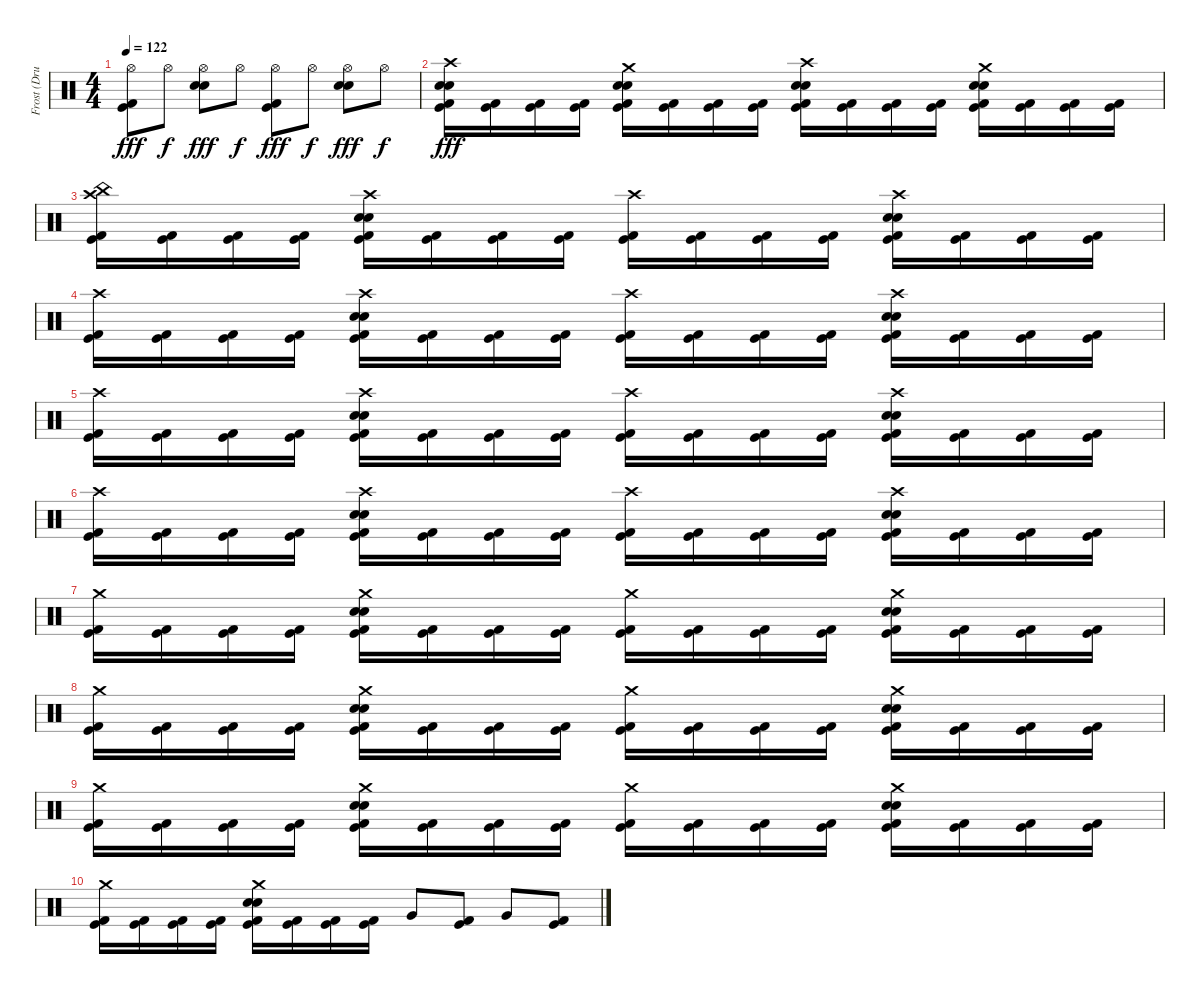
\track ("Frost (Drums)" "Frost (Dru") {instrument percussion}
\staff {score}
\articulation defaults
\ts (4 4)
\tempo 122
\clef neutral
\ks c
("Hi-Hat (open)" "Kick (hit)" "Kick (hit) 2").8{dy fff} "Hi-Hat (open)".8{dy f} ("Hi-Hat (open)" "Snare (hit) 2" "Electric Snare (hit)").8{dy fff} "Hi-Hat (open)".8{dy f} ("Hi-Hat (open)" "Kick (hit)" "Kick (hit) 2").8{dy fff} "Hi-Hat (open)".8{dy f} ("Hi-Hat (open)" "Snare (hit) 2" "Electric Snare (hit)").8{dy fff} "Hi-Hat (open)".8{dy f} |
("Crash high (hit)" "Snare (hit) 2" "Electric Snare (hit)" "Kick (hit)" "Kick (hit) 2").16{dy fff} ("Kick (hit)" "Kick (hit) 2").16 ("Kick (hit)" "Kick (hit) 2").16 ("Kick (hit)" "Kick (hit) 2").16 ("Crash medium (hit)" "Snare (hit) 2" "Electric Snare (hit)" "Kick (hit)" "Kick (hit) 2").16 ("Kick (hit)" "Kick (hit) 2").16 ("Kick (hit)" "Kick (hit) 2").16 ("Kick (hit)" "Kick (hit) 2").16 ("Crash high (hit)" "Snare (hit) 2" "Electric Snare (hit)" "Kick (hit)" "Kick (hit) 2").16 ("Kick (hit)" "Kick (hit) 2").16 ("Kick (hit)" "Kick (hit) 2").16 ("Kick (hit)" "Kick (hit) 2").16 ("Crash medium (hit)" "Snare (hit) 2" "Electric Snare (hit)" "Kick (hit)" "Kick (hit) 2").16 ("Kick (hit)" "Kick (hit) 2").16 ("Kick (hit)" "Kick (hit) 2").16 ("Kick (hit)" "Kick (hit) 2").16 |
("Crash high (hit)" "China (hit)" "Kick (hit)" "Kick (hit) 2").16 ("Kick (hit)" "Kick (hit) 2").16 ("Kick (hit)" "Kick (hit) 2").16 ("Kick (hit)" "Kick (hit) 2").16 ("Crash high (hit)" "Snare (hit) 2" "Electric Snare (hit)" "Kick (hit)" "Kick (hit) 2").16 ("Kick (hit)" "Kick (hit) 2").16 ("Kick (hit)" "Kick (hit) 2").16 ("Kick (hit)" "Kick (hit) 2").16 ("Crash high (hit)" "Kick (hit)" "Kick (hit) 2").16 ("Kick (hit)" "Kick (hit) 2").16 ("Kick (hit)" "Kick (hit) 2").16 ("Kick (hit)" "Kick (hit) 2").16 ("Crash high (hit)" "Snare (hit) 2" "Electric Snare (hit)" "Kick (hit)" "Kick (hit) 2").16 ("Kick (hit)" "Kick (hit) 2").16 ("Kick (hit)" "Kick (hit) 2").16 ("Kick (hit)" "Kick (hit) 2").16 |
("Crash high (hit)" "Kick (hit)" "Kick (hit) 2").16 ("Kick (hit)" "Kick (hit) 2").16 ("Kick (hit)" "Kick (hit) 2").16 ("Kick (hit)" "Kick (hit) 2").16 ("Crash high (hit)" "Snare (hit) 2" "Electric Snare (hit)" "Kick (hit)" "Kick (hit) 2").16 ("Kick (hit)" "Kick (hit) 2").16 ("Kick (hit)" "Kick (hit) 2").16 ("Kick (hit)" "Kick (hit) 2").16 ("Crash high (hit)" "Kick (hit)" "Kick (hit) 2").16 ("Kick (hit)" "Kick (hit) 2").16 ("Kick (hit)" "Kick (hit) 2").16 ("Kick (hit)" "Kick (hit) 2").16 ("Crash high (hit)" "Snare (hit) 2" "Electric Snare (hit)" "Kick (hit)" "Kick (hit) 2").16 ("Kick (hit)" "Kick (hit) 2").16 ("Kick (hit)" "Kick (hit) 2").16 ("Kick (hit)" "Kick (hit) 2").16 |
("Crash high (hit)" "Kick (hit)" "Kick (hit) 2").16 ("Kick (hit)" "Kick (hit) 2").16 ("Kick (hit)" "Kick (hit) 2").16 ("Kick (hit)" "Kick (hit) 2").16 ("Crash high (hit)" "Snare (hit) 2" "Electric Snare (hit)" "Kick (hit)" "Kick (hit) 2").16 ("Kick (hit)" "Kick (hit) 2").16 ("Kick (hit)" "Kick (hit) 2").16 ("Kick (hit)" "Kick (hit) 2").16 ("Crash high (hit)" "Kick (hit)" "Kick (hit) 2").16 ("Kick (hit)" "Kick (hit) 2").16 ("Kick (hit)" "Kick (hit) 2").16 ("Kick (hit)" "Kick (hit) 2").16 ("Crash high (hit)" "Snare (hit) 2" "Electric Snare (hit)" "Kick (hit)" "Kick (hit) 2").16 ("Kick (hit)" "Kick (hit) 2").16 ("Kick (hit)" "Kick (hit) 2").16 ("Kick (hit)" "Kick (hit) 2").16 |
("Crash high (hit)" "Kick (hit)" "Kick (hit) 2").16 ("Kick (hit)" "Kick (hit) 2").16 ("Kick (hit)" "Kick (hit) 2").16 ("Kick (hit)" "Kick (hit) 2").16 ("Crash high (hit)" "Snare (hit) 2" "Electric Snare (hit)" "Kick (hit)" "Kick (hit) 2").16 ("Kick (hit)" "Kick (hit) 2").16 ("Kick (hit)" "Kick (hit) 2").16 ("Kick (hit)" "Kick (hit) 2").16 ("Crash high (hit)" "Kick (hit)" "Kick (hit) 2").16 ("Kick (hit)" "Kick (hit) 2").16 ("Kick (hit)" "Kick (hit) 2").16 ("Kick (hit)" "Kick (hit) 2").16 ("Crash high (hit)" "Snare (hit) 2" "Electric Snare (hit)" "Kick (hit)" "Kick (hit) 2").16 ("Kick (hit)" "Kick (hit) 2").16 ("Kick (hit)" "Kick (hit) 2").16 ("Kick (hit)" "Kick (hit) 2").16 |
("Crash medium (hit)" "Kick (hit)" "Kick (hit) 2").16 ("Kick (hit)" "Kick (hit) 2").16 ("Kick (hit)" "Kick (hit) 2").16 ("Kick (hit)" "Kick (hit) 2").16 ("Crash medium (hit)" "Snare (hit) 2" "Electric Snare (hit)" "Kick (hit)" "Kick (hit) 2").16 ("Kick (hit)" "Kick (hit) 2").16 ("Kick (hit)" "Kick (hit) 2").16 ("Kick (hit)" "Kick (hit) 2").16 ("Crash medium (hit)" "Kick (hit)" "Kick (hit) 2").16 ("Kick (hit)" "Kick (hit) 2").16 ("Kick (hit)" "Kick (hit) 2").16 ("Kick (hit)" "Kick (hit) 2").16 ("Crash medium (hit)" "Snare (hit) 2" "Electric Snare (hit)" "Kick (hit)" "Kick (hit) 2").16 ("Kick (hit)" "Kick (hit) 2").16 ("Kick (hit)" "Kick (hit) 2").16 ("Kick (hit)" "Kick (hit) 2").16 |
("Crash medium (hit)" "Kick (hit)" "Kick (hit) 2").16 ("Kick (hit)" "Kick (hit) 2").16 ("Kick (hit)" "Kick (hit) 2").16 ("Kick (hit)" "Kick (hit) 2").16 ("Crash medium (hit)" "Snare (hit) 2" "Electric Snare (hit)" "Kick (hit)" "Kick (hit) 2").16 ("Kick (hit)" "Kick (hit) 2").16 ("Kick (hit)" "Kick (hit) 2").16 ("Kick (hit)" "Kick (hit) 2").16 ("Crash medium (hit)" "Kick (hit)" "Kick (hit) 2").16 ("Kick (hit)" "Kick (hit) 2").16 ("Kick (hit)" "Kick (hit) 2").16 ("Kick (hit)" "Kick (hit) 2").16 ("Crash medium (hit)" "Snare (hit) 2" "Electric Snare (hit)" "Kick (hit)" "Kick (hit) 2").16 ("Kick (hit)" "Kick (hit) 2").16 ("Kick (hit)" "Kick (hit) 2").16 ("Kick (hit)" "Kick (hit) 2").16 |
("Crash medium (hit)" "Kick (hit)" "Kick (hit) 2").16 ("Kick (hit)" "Kick (hit) 2").16 ("Kick (hit)" "Kick (hit) 2").16 ("Kick (hit)" "Kick (hit) 2").16 ("Crash medium (hit)" "Snare (hit) 2" "Electric Snare (hit)" "Kick (hit)" "Kick (hit) 2").16 ("Kick (hit)" "Kick (hit) 2").16 ("Kick (hit)" "Kick (hit) 2").16 ("Kick (hit)" "Kick (hit) 2").16 ("Crash medium (hit)" "Kick (hit)" "Kick (hit) 2").16 ("Kick (hit)" "Kick (hit) 2").16 ("Kick (hit)" "Kick (hit) 2").16 ("Kick (hit)" "Kick (hit) 2").16 ("Crash medium (hit)" "Snare (hit) 2" "Electric Snare (hit)" "Kick (hit)" "Kick (hit) 2").16 ("Kick (hit)" "Kick (hit) 2").16 ("Kick (hit)" "Kick (hit) 2").16 ("Kick (hit)" "Kick (hit) 2").16 |
("Crash medium (hit)" "Kick (hit)" "Kick (hit) 2").16 ("Kick (hit)" "Kick (hit) 2").16 ("Kick (hit)" "Kick (hit) 2").16 ("Kick (hit)" "Kick (hit) 2").16 ("Crash medium (hit)" "Snare (hit) 2" "Electric Snare (hit)" "Kick (hit)" "Kick (hit) 2").16 ("Kick (hit)" "Kick (hit) 2").16 ("Kick (hit)" "Kick (hit) 2").16 ("Kick (hit)" "Kick (hit) 2").16 "Very Low Tom (hit)".8{volume 16} ("Kick (hit)" "Kick (hit) 2").8{volume 11} "Very Low Tom (hit)".8{volume 16} ("Kick (hit)" "Kick (hit) 2").8{volume 11}
